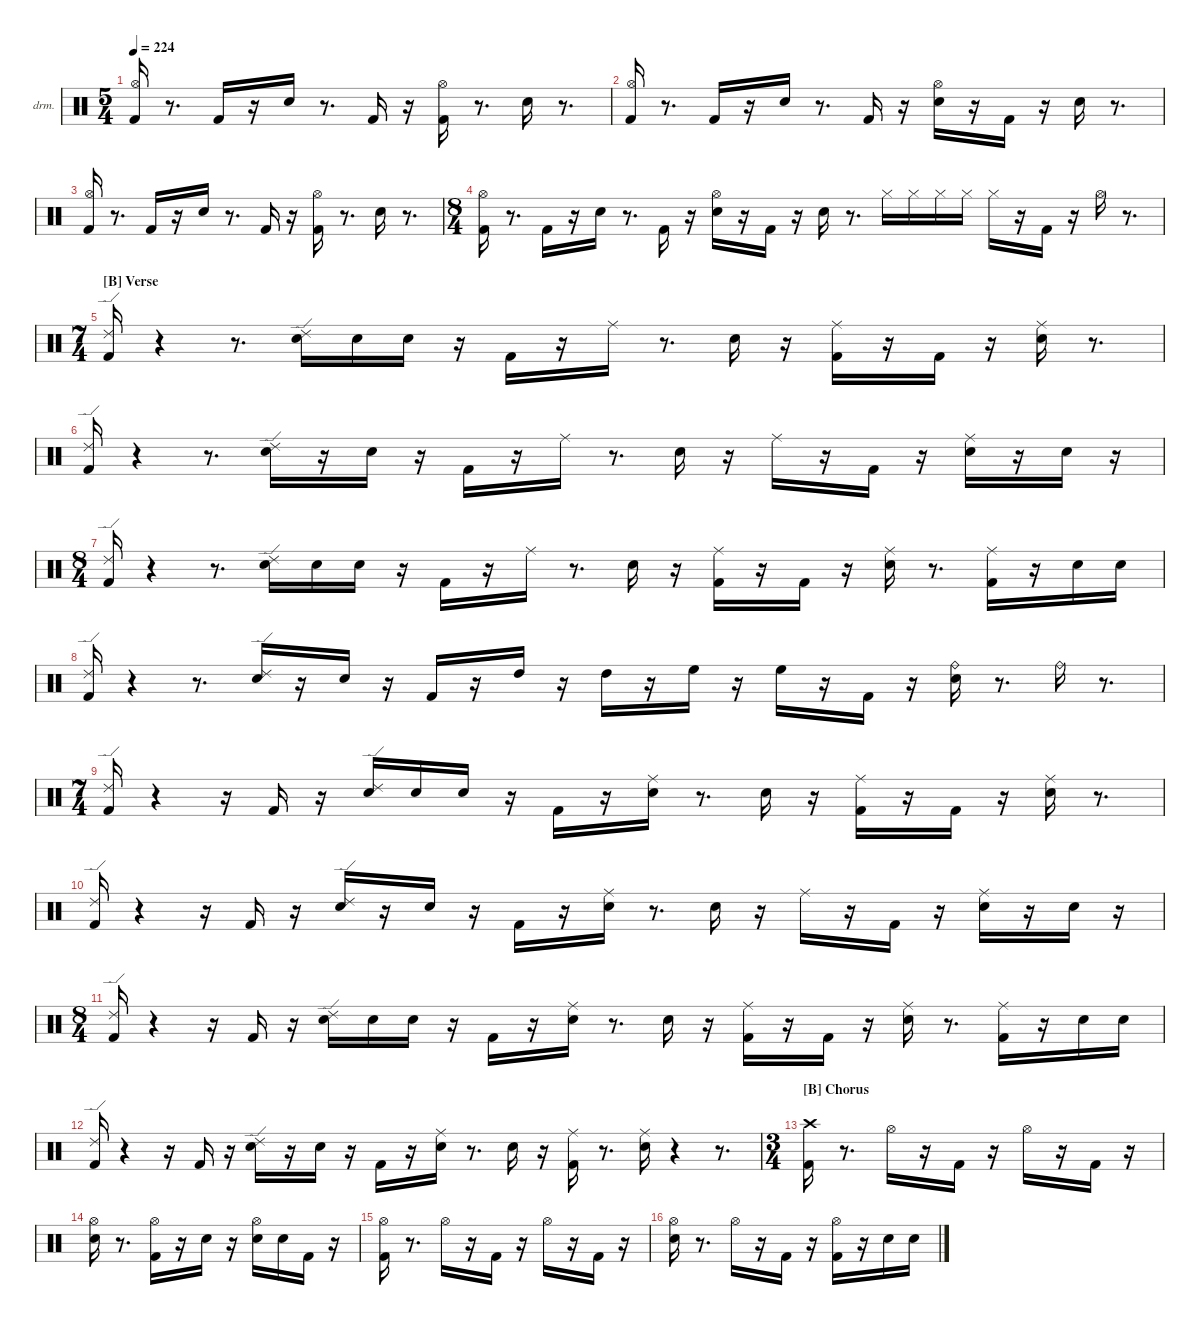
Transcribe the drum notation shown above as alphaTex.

\hideDynamics
\bracketExtendMode nobrackets
\firstSystemTrackNameOrientation horizontal
\otherSystemsTrackNameOrientation horizontal
\track ("Drums" "drm.") {instrument percussion}
\staff {score}
\articulation defaults
\ts (5 4)
\tempo 224
\clef neutral
\ks aminor
("Kick (hit) 2" "Hi-Hat (open)"{acc #}).16{dy fff beam Up} r.8{d beam Up} "Kick (hit) 2".16{dy f beam Up} r.16{beam Up} "Snare (hit) 2".16{dy ff beam Up} r.8{d beam Up} "Kick (hit) 2".16{dy f beam Up} r.16{beam Up} ("Kick (hit) 2" "Hi-Hat (open)"{acc #}).16{dy ff beam Down} r.8{d beam Down} "Snare (hit) 2".16{dy f beam Down} r.8{d beam Down} |
("Kick (hit) 2" "Hi-Hat (open)"{acc #}).16{dy fff beam Up} r.8{d beam Up} "Kick (hit) 2".16{dy mf beam Up} r.16{beam Up} "Snare (hit) 2".16{dy ff beam Up} r.8{d beam Up} "Kick (hit) 2".16{dy f beam Up} r.16{beam Up} ("Snare (hit) 2" "Hi-Hat (open)"{acc #}).16{dy fff beam Down} r.16{beam Down} "Kick (hit) 2".16{dy f beam Down} r.16{beam Down} "Snare (hit) 2".16{dy fff beam Down} r.8{d beam Down} |
("Kick (hit) 2" "Hi-Hat (open)"{acc #}).16{beam Up} r.8{d beam Up} "Kick (hit) 2".16{dy f beam Up} r.16{beam Up} "Snare (hit) 2".16{dy ff beam Up} r.8{d beam Up} "Kick (hit) 2".16{dy f beam Up} r.16{beam Up} ("Kick (hit) 2" "Hi-Hat (open)"{acc #}).16{dy ff beam Down} r.8{d beam Down} "Snare (hit) 2".16{dy f beam Down} r.8{d beam Down} |
\ts (8 4)
("Kick (hit) 2" "Hi-Hat (open)"{acc #}).16{dy fff beam Down} r.8{d beam Down} "Kick (hit) 2".16{dy mf beam Down} r.16{beam Down} "Snare (hit) 2".16{dy ff beam Down} r.8{d beam Down} "Kick (hit) 2".16{dy f beam Down} r.16{beam Down} ("Snare (hit) 2" "Hi-Hat (open)"{acc #}).16{dy fff beam Down} r.16{beam Down} "Kick (hit) 2".16{dy f beam Down} r.16{beam Down} "Snare (hit) 2".16{dy fff beam Down} r.8{d beam Down} "Hi-Hat (closed)"{acc #}.16{beam Down} "Hi-Hat (closed)"{acc #}.16{dy mp beam Down} "Hi-Hat (closed)"{acc #}.16{dy f beam Down} "Hi-Hat (closed)"{acc #}.16{dy mp beam Down} "Hi-Hat (closed)"{acc #}.16{dy fff beam Down} r.16{beam Down} "Kick (hit) 2".16{beam Down} r.16{beam Down} "Hi-Hat (open)"{acc #}.16{beam Down} r.8{d beam Down} |
\ts (7 4)
\section ("B" "Verse")
("Kick (hit) 2" "Ride (edge) 2").16{dy ff beam Up} r.4{beam Up} r.8{d beam Up} ("Snare (hit) 2" "Ride (edge) 2").16{beam Down} "Snare (hit) 2".16{dy p beam Down} "Snare (hit) 2".16{dy ppp beam Down} r.16{beam Down} "Kick (hit) 2".16{dy ff beam Down} r.16{beam Down} "Ride (middle)"{acc #}.16{dy fff beam Down} r.8{d beam Down} "Snare (hit) 2".16{dy ff beam Down} r.16{beam Down} ("Kick (hit) 2" "Ride (middle)"{acc #}).16{dy f beam Down} r.16{beam Down} "Kick (hit) 2".16{dy ff beam Down} r.16{beam Down} ("Snare (hit) 2" "Ride (middle)"{acc #}).16{dy fff beam Down} r.8{d beam Down} |
("Kick (hit) 2" "Ride (edge) 2").16{beam Up} r.4{beam Up} r.8{d beam Up} ("Snare (hit) 2" "Ride (edge) 2").16{beam Down} r.16{beam Down} "Snare (hit) 2".16{dy mp beam Down} r.16{beam Down} "Kick (hit) 2".16{dy ff beam Down} r.16{beam Down} "Ride (middle)"{acc #}.16{dy fff beam Down} r.8{d beam Down} "Snare (hit) 2".16{dy f beam Down} r.16{beam Down} "Ride (middle)"{acc #}.16{beam Down} r.16{beam Down} "Kick (hit) 2".16{beam Down} r.16{beam Down} ("Snare (hit) 2" "Ride (middle)"{acc #}).16{dy mf beam Down} r.16{beam Down} "Snare (hit) 2".16{dy fff beam Down} r.16{beam Down} |
\ts (8 4)
("Kick (hit) 2" "Ride (edge) 2").16{dy ff beam Up} r.4{beam Up} r.8{d beam Up} ("Snare (hit) 2" "Ride (edge) 2").16{beam Down} "Snare (hit) 2".16{dy p beam Down} "Snare (hit) 2".16{dy ppp beam Down} r.16{beam Down} "Kick (hit) 2".16{dy ff beam Down} r.16{beam Down} "Ride (middle)"{acc #}.16{dy fff beam Down} r.8{d beam Down} "Snare (hit) 2".16{dy f beam Down} r.16{beam Down} ("Kick (hit) 2" "Ride (middle)"{acc #}).16{beam Down} r.16{beam Down} "Kick (hit) 2".16{dy ff beam Down} r.16{beam Down} ("Snare (hit) 2" "Ride (middle)"{acc #}).16{dy fff beam Down} r.8{d beam Down} ("Kick (hit) 2" "Ride (middle)"{acc #}).16{dy f beam Down} r.16{beam Down} "Snare (hit) 2".16{beam Down} "Snare (hit) 2".16{dy p beam Down} |
("Kick (hit) 2" "Ride (edge) 2").16{dy fff beam Up} r.4{beam Up} r.8{d beam Up} ("Snare (hit) 2" "Ride (edge) 2").16{beam Up} r.16{beam Up} "Snare (hit) 2".16{dy mp beam Up} r.16{beam Up} "Kick (hit) 2".16{dy ff beam Up} r.16{beam Up} "High Tom (hit)".16{dy fff beam Up} r.16{beam Up} "High Tom (hit)".16{dy f beam Down} r.16{beam Down} "High Floor Tom (hit)".16{dy fff beam Down} r.16{beam Down} "High Floor Tom (hit)".16{dy ff beam Down} r.16{beam Down} "Kick (hit) 2".16{beam Down} r.16{beam Down} ("Snare (hit) 2" "Ride (bell)").16{beam Down} r.8{d beam Down} "Ride (bell)".16{beam Down} r.8{d beam Down} |
\ts (7 4)
("Kick (hit) 2" "Ride (edge) 2").16{beam Up} r.4{beam Up} r.16{beam Up} "Kick (hit) 2".16{dy f beam Up} r.16{beam Up} ("Snare (hit) 2" "Ride (edge) 2").16{dy ff beam Up} "Snare (hit) 2".16{dy p beam Up} "Snare (hit) 2".16{dy ppp beam Up} r.16{beam Up} "Kick (hit) 2".16{dy ff beam Down} r.16{beam Down} ("Snare (hit) 2" "Ride (middle)"{acc #}).16{beam Down} r.8{d beam Down} "Snare (hit) 2".16{dy f beam Down} r.16{beam Down} ("Kick (hit) 2" "Ride (middle)"{acc #}).16{beam Down} r.16{beam Down} "Kick (hit) 2".16{dy ff beam Down} r.16{beam Down} ("Snare (hit) 2" "Ride (middle)"{acc #}).16{dy fff beam Down} r.8{d beam Down} |
("Kick (hit) 2" "Ride (edge) 2").16{beam Up} r.4{beam Up} r.16{beam Up} "Kick (hit) 2".16{dy f beam Up} r.16{beam Up} ("Snare (hit) 2" "Ride (edge) 2").16{dy fff beam Up} r.16{beam Up} "Snare (hit) 2".16{dy mp beam Up} r.16{beam Up} "Kick (hit) 2".16{dy ff beam Down} r.16{beam Down} ("Snare (hit) 2" "Ride (middle)"{acc #}).16{beam Down} r.8{d beam Down} "Snare (hit) 2".16{dy f beam Down} r.16{beam Down} "Ride (middle)"{acc #}.16{beam Down} r.16{beam Down} "Kick (hit) 2".16{beam Down} r.16{beam Down} ("Snare (hit) 2" "Ride (middle)"{acc #}).16{dy mf beam Down} r.16{beam Down} "Snare (hit) 2".16{dy fff beam Down} r.16{beam Down} |
\ts (8 4)
("Kick (hit) 2" "Ride (edge) 2").16{dy ff beam Up} r.4{beam Up} r.16{beam Up} "Kick (hit) 2".16{dy f beam Up} r.16{beam Up} ("Snare (hit) 2" "Ride (edge) 2").16{dy ff beam Down} "Snare (hit) 2".16{dy p beam Down} "Snare (hit) 2".16{dy ppp beam Down} r.16{beam Down} "Kick (hit) 2".16{dy ff beam Down} r.16{beam Down} ("Snare (hit) 2" "Ride (middle)"{acc #}).16{beam Down} r.8{d beam Down} "Snare (hit) 2".16{dy f beam Down} r.16{beam Down} ("Kick (hit) 2" "Ride (middle)"{acc #}).16{beam Down} r.16{beam Down} "Kick (hit) 2".16{dy ff beam Down} r.16{beam Down} ("Snare (hit) 2" "Ride (middle)"{acc #}).16{dy fff beam Down} r.8{d beam Down} ("Kick (hit) 2" "Ride (middle)"{acc #}).16{dy f beam Down} r.16{beam Down} "Snare (hit) 2".16{beam Down} "Snare (hit) 2".16{dy p beam Down} |
("Kick (hit) 2" "Ride (edge) 2").16{dy fff beam Up} r.4{beam Up} r.16{beam Up} "Kick (hit) 2".16{dy f beam Up} r.16{beam Up} ("Snare (hit) 2" "Ride (edge) 2").16{dy fff beam Down} r.16{beam Down} "Snare (hit) 2".16{dy mp beam Down} r.16{beam Down} "Kick (hit) 2".16{dy ff beam Down} r.16{beam Down} ("Snare (hit) 2" "Ride (middle)"{acc #}).16{beam Down} r.8{d beam Down} "Snare (hit) 2".16{dy f beam Down} r.16{beam Down} ("Kick (hit) 2" "Ride (middle)"{acc #}).16{dy ff beam Down} r.8{d beam Down} ("Snare (hit) 2" "Ride (middle)"{acc #}).16{dy fff beam Down} r.4{beam Down} r.8{d beam Down} |
\ts (3 4)
\section ("B" "Chorus")
("Kick (hit) 2" "Crash high (hit)"{acc #}).16{beam Down} r.8{d beam Down} "Hi-Hat (open)"{acc #}.16{dy mp beam Down} r.16{beam Down} "Kick (hit) 2".16{dy f beam Down} r.16{beam Down} "Hi-Hat (open)"{acc #}.16{beam Down} r.16{beam Down} "Kick (hit) 2".16{dy ff beam Down} r.16{beam Down} |
("Snare (hit) 2" "Hi-Hat (open)"{acc #}).16{beam Down} r.8{d beam Down} ("Kick (hit) 2" "Hi-Hat (open)"{acc #}).16{dy mf beam Down} r.16{beam Down} "Snare (hit) 2".16{beam Down} r.16{beam Down} ("Snare (hit) 2" "Hi-Hat (open)"{acc #}).16{dy p beam Down} "Snare (hit) 2".16{dy ppp beam Down} "Kick (hit) 2".16{dy mp beam Down} r.16{beam Down} |
("Kick (hit) 2" "Hi-Hat (open)"{acc #}).16{dy fff beam Down} r.8{d beam Down} "Hi-Hat (open)"{acc #}.16{dy mp beam Down} r.16{beam Down} "Kick (hit) 2".16{dy f beam Down} r.16{beam Down} "Hi-Hat (open)"{acc #}.16{beam Down} r.16{beam Down} "Kick (hit) 2".16{dy ff beam Down} r.16{beam Down} |
("Snare (hit) 2" "Hi-Hat (open)"{acc #}).16{beam Down} r.8{d beam Down} "Hi-Hat (open)"{acc #}.16{dy mf beam Down} r.16{beam Down} "Kick (hit) 2".16{beam Down} r.16{beam Down} ("Kick (hit) 2" "Hi-Hat (open)"{acc #}).16{dy fff beam Down} r.16{beam Down} "Snare (hit) 2".16{dy pp beam Down} "Snare (hit) 2".16{dy ppp beam Down}
